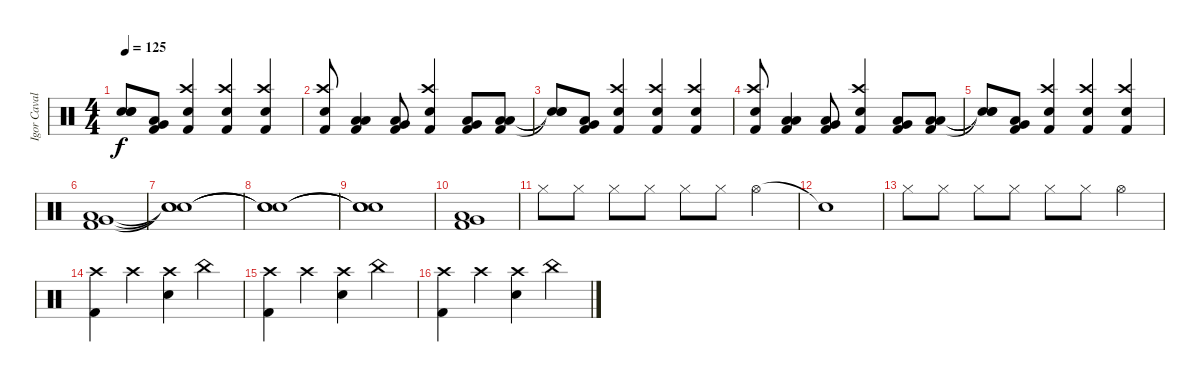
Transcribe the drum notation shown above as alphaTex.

\track ("Igor Cavalera" "Igor Caval") {instrument percussion}
\staff {score}
\articulation defaults
\ts (4 4)
\tempo 125
\clef neutral
\ks c
("Snare (hit)"{t} "Snare (hit)"{t} "Snare (hit)"{t}).8{dy f} ("Low Tom (hit)" "Very Low Tom (hit)" "Kick (hit) 2").8 ("Crash high (hit)" "Electric Snare (hit)" "Kick (hit) 2").4 ("Crash high (hit)" "Electric Snare (hit)" "Kick (hit) 2").4 ("Crash high (hit)" "Electric Snare (hit)" "Kick (hit) 2").4 |
("Crash high (hit)" "Electric Snare (hit)" "Kick (hit) 2").8 ("Low Tom (hit)" "Low Floor Tom (hit)" "Kick (hit) 2").4 ("Very Low Tom (hit)" "Low Floor Tom (hit)" "Kick (hit) 2").8 ("Crash high (hit)" "Electric Snare (hit)" "Kick (hit) 2").4 ("Very Low Tom (hit)" "Low Floor Tom (hit)" "Kick (hit) 2").8 ("Low Tom (hit)" "Low Floor Tom (hit)" "Kick (hit) 2").8 |
("Snare (hit)"{t} "Snare (hit)"{t} "Snare (hit)"{t}).8 ("Low Tom (hit)" "Very Low Tom (hit)" "Kick (hit) 2").8 ("Crash high (hit)" "Electric Snare (hit)" "Kick (hit) 2").4 ("Crash high (hit)" "Electric Snare (hit)" "Kick (hit) 2").4 ("Crash high (hit)" "Electric Snare (hit)" "Kick (hit) 2").4 |
("Crash high (hit)" "Electric Snare (hit)" "Kick (hit) 2").8 ("Low Tom (hit)" "Low Floor Tom (hit)" "Kick (hit) 2").4 ("Very Low Tom (hit)" "Low Floor Tom (hit)" "Kick (hit) 2").8 ("Crash high (hit)" "Electric Snare (hit)" "Kick (hit) 2").4 ("Very Low Tom (hit)" "Low Floor Tom (hit)" "Kick (hit) 2").8 ("Low Tom (hit)" "Low Floor Tom (hit)" "Kick (hit) 2").8 |
("Snare (hit)"{t} "Snare (hit)"{t} "Snare (hit)"{t}).8 ("Low Tom (hit)" "Very Low Tom (hit)" "Kick (hit) 2").8 ("Crash high (hit)" "Electric Snare (hit)" "Kick (hit) 2").4 ("Crash high (hit)" "Electric Snare (hit)" "Kick (hit) 2").4 ("Crash high (hit)" "Electric Snare (hit)" "Kick (hit) 2").4 |
("Very Low Tom (hit)" "Low Floor Tom (hit)" "Kick (hit) 2").1 |
("Snare (hit)"{t} "Snare (hit)"{t} "Snare (hit)"{t}).1 |
("Snare (hit)"{t} "Snare (hit)"{t} "Snare (hit)"{t}).1 |
("Snare (hit)"{t} "Snare (hit)"{t} "Snare (hit)"{t}).1 |
("Very Low Tom (hit)" "Low Floor Tom (hit)" "Kick (hit) 2").1 |
"Hi-Hat (closed)".8 "Hi-Hat (closed)".8 "Hi-Hat (closed)".8 "Hi-Hat (closed)".8 "Hi-Hat (closed)".8 "Hi-Hat (closed)".8 "Hi-Hat (open)".4 |
"Snare (hit)"{t}.1 |
"Hi-Hat (closed)".8 "Hi-Hat (closed)".8 "Hi-Hat (closed)".8 "Hi-Hat (closed)".8 "Hi-Hat (closed)".8 "Hi-Hat (closed)".8 "Hi-Hat (open)".4 |
("Crash high (hit)" "Kick (hit) 2").4 "Crash high (hit)".4 ("Crash high (hit)" "Electric Snare (hit)").4 "China (hit)".4 |
("Crash high (hit)" "Kick (hit) 2").4 "Crash high (hit)".4 ("Crash high (hit)" "Electric Snare (hit)").4 "China (hit)".4 |
("Crash high (hit)" "Kick (hit) 2").4 "Crash high (hit)".4 ("Crash high (hit)" "Electric Snare (hit)").4 "China (hit)".4
